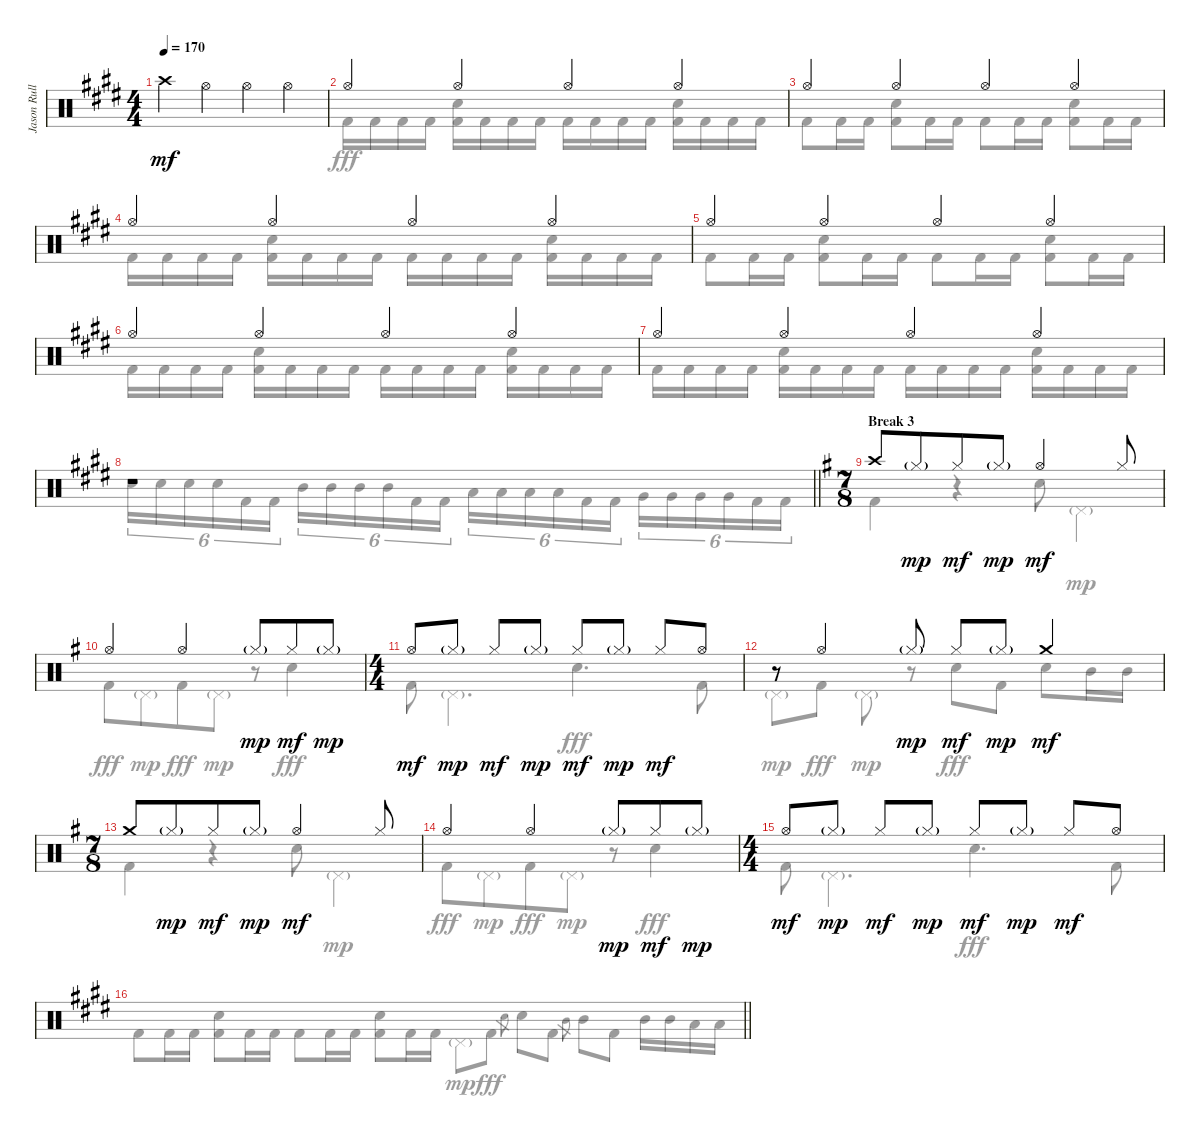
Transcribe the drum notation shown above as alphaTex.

\track ("Jason Rullo Drums" "Jason Rull") {instrument percussion}
\staff {score}
\articulation defaults
\voice
\ts (4 4)
\tempo 170
\clef neutral
\ks c#minor "Crash high (hit)".4{dy mf} "Hi-Hat (open)".4 "Hi-Hat (open)".4 "Hi-Hat (open)".4
|
"Hi-Hat (open)".4 "Hi-Hat (open)".4 "Hi-Hat (open)".4 "Hi-Hat (open)".4 |
"Hi-Hat (open)".4 "Hi-Hat (open)".4 "Hi-Hat (open)".4 "Hi-Hat (open)".4 |
"Hi-Hat (open)".4 "Hi-Hat (open)".4 "Hi-Hat (open)".4 "Hi-Hat (open)".4 |
"Hi-Hat (open)".4 "Hi-Hat (open)".4 "Hi-Hat (open)".4 "Hi-Hat (open)".4 |
"Hi-Hat (open)".4 "Hi-Hat (open)".4 "Hi-Hat (open)".4 "Hi-Hat (open)".4 |
"Hi-Hat (open)".4 "Hi-Hat (open)".4 "Hi-Hat (open)".4 "Hi-Hat (open)".4 |
\barLineRight lightlight
r.1 |
\ts (7 8)
\section ("" "Break 3")
\ks eminor "Crash high (hit)".8 "Hi-Hat (closed)"{g}.8{dy mp} "Hi-Hat (closed)".8{dy mf} "Hi-Hat (closed)"{g}.8{dy mp} "Hi-Hat (open)".4{dy mf} "Hi-Hat (closed)".8
|
"Hi-Hat (open)".4 "Hi-Hat (open)".4 "Hi-Hat (closed)"{g}.8{dy mp} "Hi-Hat (closed)".8{dy mf} "Hi-Hat (closed)"{g}.8{dy mp} |
\ts (4 4)
"Hi-Hat (open)".8{dy mf} "Hi-Hat (closed)"{g}.8{dy mp} "Hi-Hat (closed)".8{dy mf} "Hi-Hat (closed)"{g}.8{dy mp} "Hi-Hat (closed)".8{dy mf} "Hi-Hat (closed)"{g}.8{dy mp} "Hi-Hat (closed)".8{dy mf} "Hi-Hat (open)".8 |
r.8 "Hi-Hat (open)".4 "Hi-Hat (closed)"{g}.8{dy mp} "Hi-Hat (closed)".8{dy mf} "Hi-Hat (closed)"{g}.8{dy mp} "Crash medium (hit)".4{dy mf} |
\ts (7 8)
"Crash medium (hit)".8 "Hi-Hat (closed)"{g}.8{dy mp} "Hi-Hat (closed)".8{dy mf} "Hi-Hat (closed)"{g}.8{dy mp} "Hi-Hat (open)".4{dy mf} "Hi-Hat (closed)".8 |
"Hi-Hat (open)".4 "Hi-Hat (open)".4 "Hi-Hat (closed)"{g}.8{dy mp} "Hi-Hat (closed)".8{dy mf} "Hi-Hat (closed)"{g}.8{dy mp} |
\ts (4 4)
"Hi-Hat (open)".8{dy mf} "Hi-Hat (closed)"{g}.8{dy mp} "Hi-Hat (closed)".8{dy mf} "Hi-Hat (closed)"{g}.8{dy mp} "Hi-Hat (closed)".8{dy mf} "Hi-Hat (closed)"{g}.8{dy mp} "Hi-Hat (closed)".8{dy mf} "Hi-Hat (open)".8 |
\barLineRight lightlight
\voice
\clef neutral
\ottava regular
\simile none
\ks c#minor "Kick (hit) 2".8{dy fff} "Kick (hit) 2".16 "Kick (hit) 2".16
("Electric Snare (hit)" "Kick (hit) 2").8 "Kick (hit) 2".16 "Kick (hit) 2".16 "Kick (hit) 2".8 "Kick (hit) 2".16 "Kick (hit) 2".16 ("Electric Snare (hit)" "Kick (hit) 2").8 "Kick (hit) 2".16 "Kick (hit) 2".16 |
"Kick (hit) 2".16 "Kick (hit) 2".16 "Kick (hit) 2".16 "Kick (hit) 2".16 ("Electric Snare (hit)" "Kick (hit) 2").16 "Kick (hit) 2".16 "Kick (hit) 2".16 "Kick (hit) 2".16 "Kick (hit) 2".16 "Kick (hit) 2".16 "Kick (hit) 2".16 "Kick (hit) 2".16 ("Electric Snare (hit)" "Kick (hit) 2").16 "Kick (hit) 2".16 "Kick (hit) 2".16 "Kick (hit) 2".16 |
"Kick (hit) 2".8 "Kick (hit) 2".16 "Kick (hit) 2".16 ("Electric Snare (hit)" "Kick (hit) 2").8 "Kick (hit) 2".16 "Kick (hit) 2".16 "Kick (hit) 2".8 "Kick (hit) 2".16 "Kick (hit) 2".16 ("Electric Snare (hit)" "Kick (hit) 2").8 "Kick (hit) 2".16 "Kick (hit) 2".16 |
"Kick (hit) 2".16 "Kick (hit) 2".16 "Kick (hit) 2".16 "Kick (hit) 2".16 ("Electric Snare (hit)" "Kick (hit) 2").16 "Kick (hit) 2".16 "Kick (hit) 2".16 "Kick (hit) 2".16 "Kick (hit) 2".16 "Kick (hit) 2".16 "Kick (hit) 2".16 "Kick (hit) 2".16 ("Electric Snare (hit)" "Kick (hit) 2").16 "Kick (hit) 2".16 "Kick (hit) 2".16 "Kick (hit) 2".16 |
"Kick (hit) 2".8 "Kick (hit) 2".16 "Kick (hit) 2".16 ("Electric Snare (hit)" "Kick (hit) 2").8 "Kick (hit) 2".16 "Kick (hit) 2".16 "Kick (hit) 2".8 "Kick (hit) 2".16 "Kick (hit) 2".16 ("Electric Snare (hit)" "Kick (hit) 2").8 "Kick (hit) 2".16 "Kick (hit) 2".16 |
"Kick (hit) 2".16 "Kick (hit) 2".16 "Kick (hit) 2".16 "Kick (hit) 2".16 ("Electric Snare (hit)" "Kick (hit) 2").16 "Kick (hit) 2".16 "Kick (hit) 2".16 "Kick (hit) 2".16 "Kick (hit) 2".16 "Kick (hit) 2".16 "Kick (hit) 2".16 "Kick (hit) 2".16 ("Electric Snare (hit)" "Kick (hit) 2").16 "Kick (hit) 2".16 "Kick (hit) 2".16 "Kick (hit) 2".16 |
"Kick (hit) 2".16 "Kick (hit) 2".16 "Kick (hit) 2".16 "Kick (hit) 2".16 ("Electric Snare (hit)" "Kick (hit) 2").16 "Kick (hit) 2".16 "Kick (hit) 2".16 "Kick (hit) 2".16 "Kick (hit) 2".16 "Kick (hit) 2".16 "Kick (hit) 2".16 "Kick (hit) 2".16 ("Electric Snare (hit)" "Kick (hit) 2").16 "Kick (hit) 2".16 "Kick (hit) 2".16 "Kick (hit) 2".16 |
\barLineRight lightlight "Electric Snare (hit)".16{tu (6 4)} "Electric Snare (hit)".16{tu (6 4)} "Electric Snare (hit)".16{tu (6 4)} "Electric Snare (hit)".16{tu (6 4)} "Kick (hit) 2".16{tu (6 4)} "Kick (hit) 2".16{tu (6 4)} "Mid Tom (hit)".16{tu (6 4)} "Mid Tom (hit)".16{tu (6 4)} "Mid Tom (hit)".16{tu (6 4)} "Mid Tom (hit)".16{tu (6 4)} "Kick (hit) 2".16{tu (6 4)} "Kick (hit) 2".16{tu (6 4)} "Low Tom (hit)".16{tu (6 4)} "Low Tom (hit)".16{tu (6 4)} "Low Tom (hit)".16{tu (6 4)} "Low Tom (hit)".16{tu (6 4)} "Kick (hit) 2".16{tu (6 4)} "Kick (hit) 2".16{tu (6 4)} "Very Low Tom (hit)".16{tu (6 4)} "Very Low Tom (hit)".16{tu (6 4)} "Very Low Tom (hit)".16{tu (6 4)} "Very Low Tom (hit)".16{tu (6 4)} "Kick (hit) 2".16{tu (6 4)} "Kick (hit) 2".16{tu (6 4)}
|
\ks eminor "Kick (hit) 2".4
r.4 "Electric Snare (hit)".8 "Pedal Hi-Hat (hit)"{g}.4{dy mp} |
"Kick (hit) 2".8{dy fff} "Pedal Hi-Hat (hit)"{g}.8{dy mp} "Kick (hit) 2".8{dy fff} "Pedal Hi-Hat (hit)"{g}.8{dy mp} r.8 "Electric Snare (hit)".4{dy fff} |
"Kick (hit) 2".8 "Pedal Hi-Hat (hit)"{g}.4{d dy mp} "Electric Snare (hit)".4{d dy fff} "Kick (hit) 2".8 |
"Pedal Hi-Hat (hit)"{g}.8{dy mp} "Kick (hit) 2".8{dy fff} "Pedal Hi-Hat (hit)"{g}.8{dy mp} r.8 "Electric Snare (hit)".8{dy fff} "Kick (hit) 2".8 "Electric Snare (hit)".8 "Mid Tom (hit)".16 "Mid Tom (hit)".16 |
"Kick (hit) 2".4 r.4 "Electric Snare (hit)".8 "Pedal Hi-Hat (hit)"{g}.4{dy mp} |
"Kick (hit) 2".8{dy fff} "Pedal Hi-Hat (hit)"{g}.8{dy mp} "Kick (hit) 2".8{dy fff} "Pedal Hi-Hat (hit)"{g}.8{dy mp} r.8 "Electric Snare (hit)".4{dy fff} |
"Kick (hit) 2".8 "Pedal Hi-Hat (hit)"{g}.4{d dy mp} "Electric Snare (hit)".4{d dy fff} "Kick (hit) 2".8 |
\barLineRight lightlight "Pedal Hi-Hat (hit)"{g}.8{dy mp} "Kick (hit) 2".8{dy fff} "Electric Snare (hit)".8{gr} "Electric Snare (hit)".8 "Kick (hit) 2".8 "Mid Tom (hit)".8{gr} "Mid Tom (hit)".8 "Kick (hit) 2".8 "Mid Tom (hit)".16 "Mid Tom (hit)".16 "Low Tom (hit)".16 "Low Tom (hit)".16
